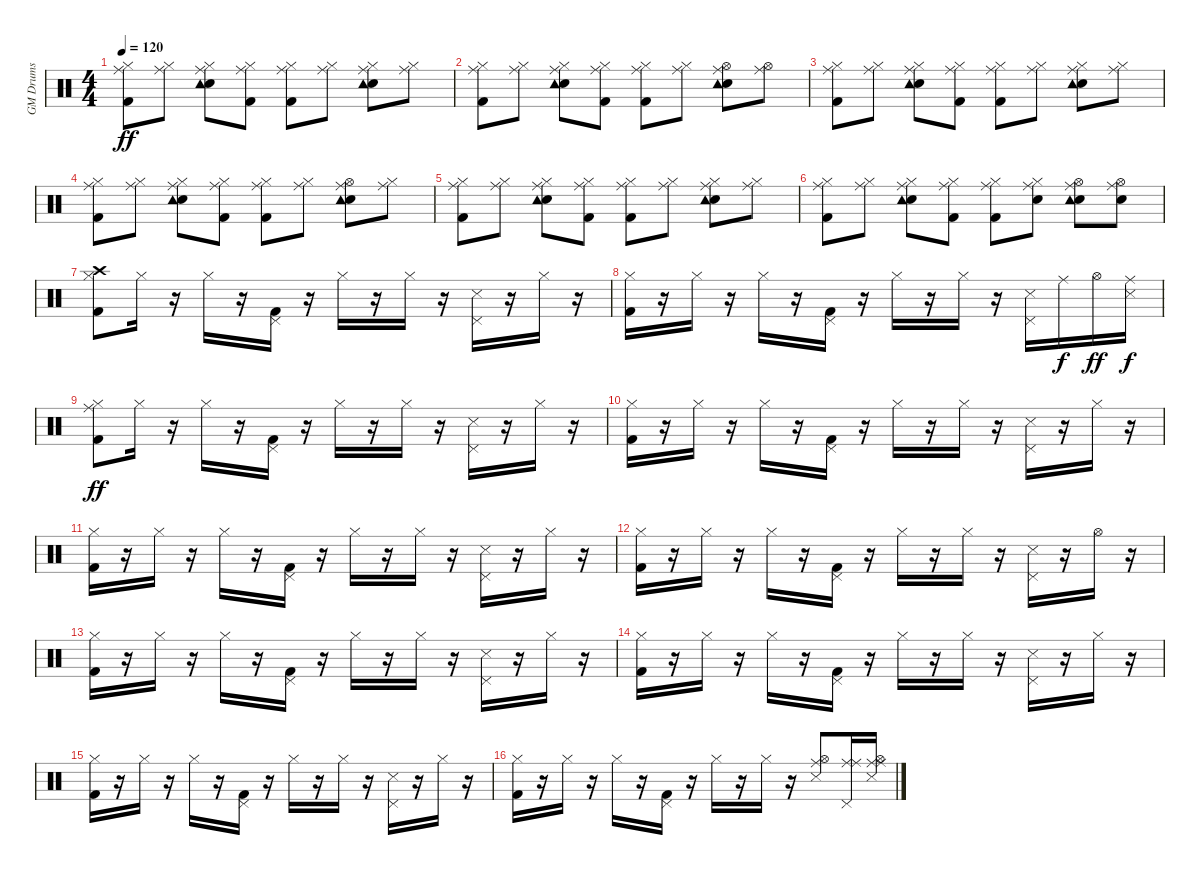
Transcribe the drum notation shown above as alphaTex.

\track ("GM Drums" "GM Drums") {instrument percussion}
\staff {score}
\articulation defaults
\ts (4 4)
\tempo 120
\clef neutral
\ks c
("Kick (hit) 2" "Hi-Hat (closed)" "Ride (middle)").8{dy ff} ("Hi-Hat (closed)" "Ride (middle)").8 ("Electric Snare (hit)" "Hi-Hat (closed)" "Ride (middle)" "Tambourine (hit)").8 ("Kick (hit) 2" "Hi-Hat (closed)" "Ride (middle)").8 ("Kick (hit) 2" "Hi-Hat (closed)" "Ride (middle)").8 ("Hi-Hat (closed)" "Ride (middle)").8 ("Electric Snare (hit)" "Hi-Hat (closed)" "Ride (middle)" "Tambourine (hit)").8 ("Hi-Hat (closed)" "Ride (middle)").8 |
("Kick (hit) 2" "Hi-Hat (closed)" "Ride (middle)").8 ("Hi-Hat (closed)" "Ride (middle)").8 ("Electric Snare (hit)" "Hi-Hat (closed)" "Ride (middle)" "Tambourine (hit)").8 ("Kick (hit) 2" "Hi-Hat (closed)" "Ride (middle)").8 ("Kick (hit) 2" "Hi-Hat (closed)" "Ride (middle)").8 ("Hi-Hat (closed)" "Ride (middle)").8 ("Electric Snare (hit)" "Hi-Hat (open)" "Ride (middle)" "Tambourine (hit)").8 ("Hi-Hat (open)" "Ride (middle)").8 |
("Kick (hit) 2" "Hi-Hat (closed)" "Ride (middle)").8 ("Hi-Hat (closed)" "Ride (middle)").8 ("Electric Snare (hit)" "Hi-Hat (closed)" "Ride (middle)" "Tambourine (hit)").8 ("Kick (hit) 2" "Hi-Hat (closed)" "Ride (middle)").8 ("Kick (hit) 2" "Hi-Hat (closed)" "Ride (middle)").8 ("Hi-Hat (closed)" "Ride (middle)").8 ("Electric Snare (hit)" "Hi-Hat (closed)" "Ride (middle)" "Tambourine (hit)").8 ("Hi-Hat (closed)" "Ride (middle)").8 |
("Kick (hit) 2" "Hi-Hat (closed)" "Ride (middle)").8 ("Hi-Hat (closed)" "Ride (middle)").8 ("Electric Snare (hit)" "Hi-Hat (closed)" "Ride (middle)" "Tambourine (hit)").8 ("Kick (hit) 2" "Hi-Hat (closed)" "Ride (middle)").8 ("Kick (hit) 2" "Hi-Hat (closed)" "Ride (middle)").8 ("Hi-Hat (closed)" "Ride (middle)").8 ("Electric Snare (hit)" "Hi-Hat (open)" "Ride (middle)" "Tambourine (hit)").8 ("Hi-Hat (closed)" "Ride (middle)").8 |
("Kick (hit) 2" "Hi-Hat (closed)" "Ride (middle)").8 ("Hi-Hat (closed)" "Ride (middle)").8 ("Electric Snare (hit)" "Hi-Hat (closed)" "Ride (middle)" "Tambourine (hit)").8 ("Kick (hit) 2" "Hi-Hat (closed)" "Ride (middle)").8 ("Kick (hit) 2" "Hi-Hat (closed)" "Ride (middle)").8 ("Hi-Hat (closed)" "Ride (middle)").8 ("Electric Snare (hit)" "Hi-Hat (closed)" "Ride (middle)" "Tambourine (hit)").8 ("Hi-Hat (closed)" "Ride (middle)").8 |
("Kick (hit) 2" "Hi-Hat (closed)" "Ride (middle)").8 ("Hi-Hat (closed)" "Ride (middle)").8 ("Electric Snare (hit)" "Hi-Hat (closed)" "Ride (middle)" "Tambourine (hit)").8 ("Kick (hit) 2" "Hi-Hat (closed)" "Ride (middle)").8 ("Kick (hit) 2" "Hi-Hat (closed)" "Ride (middle)").8 ("Electric Snare (hit)" "Hi-Hat (closed)" "Ride (middle)").8 ("Electric Snare (hit)" "Hi-Hat (open)" "Ride (middle)" "Tambourine (hit)").8 ("Electric Snare (hit)" "Hi-Hat (open)" "Ride (middle)").8 |
("Kick (hit) 2" "Hi-Hat (closed)" "Crash high (hit)").8 "Hi-Hat (closed)".16 r.16 "Hi-Hat (closed)".16 r.16 ("Kick (hit) 2" "Pedal Hi-Hat (hit)").16 r.16 "Hi-Hat (closed)".16 r.16 "Hi-Hat (closed)".16 r.16 ("Snare (side stick) 3" "Pedal Hi-Hat (hit)").16 r.16 "Hi-Hat (closed)".16 r.16 |
("Kick (hit) 2" "Hi-Hat (closed)").16 r.16 "Hi-Hat (closed)".16 r.16 "Hi-Hat (closed)".16 r.16 ("Kick (hit) 2" "Pedal Hi-Hat (hit)").16 r.16 "Hi-Hat (closed)".16 r.16 "Hi-Hat (closed)".16 r.16 ("Snare (side stick) 3" "Pedal Hi-Hat (hit)").16 "Ride (middle)".16{dy f} "Hi-Hat (open)".16{dy ff} ("Snare (side stick) 3" "Ride (middle)").16{dy f} |
("Kick (hit) 2" "Hi-Hat (closed)" "Ride (middle)").8{dy ff} "Hi-Hat (closed)".16 r.16 "Hi-Hat (closed)".16 r.16 ("Kick (hit) 2" "Pedal Hi-Hat (hit)").16 r.16 "Hi-Hat (closed)".16 r.16 "Hi-Hat (closed)".16 r.16 ("Snare (side stick) 3" "Pedal Hi-Hat (hit)").16 r.16 "Hi-Hat (closed)".16 r.16 |
("Kick (hit) 2" "Hi-Hat (closed)").16 r.16 "Hi-Hat (closed)".16 r.16 "Hi-Hat (closed)".16 r.16 ("Kick (hit) 2" "Pedal Hi-Hat (hit)").16 r.16 "Hi-Hat (closed)".16 r.16 "Hi-Hat (closed)".16 r.16 ("Snare (side stick) 3" "Pedal Hi-Hat (hit)").16 r.16 "Hi-Hat (closed)".16 r.16 |
("Kick (hit) 2" "Hi-Hat (closed)").16 r.16 "Hi-Hat (closed)".16 r.16 "Hi-Hat (closed)".16 r.16 ("Kick (hit) 2" "Pedal Hi-Hat (hit)").16 r.16 "Hi-Hat (closed)".16 r.16 "Hi-Hat (closed)".16 r.16 ("Snare (side stick) 3" "Pedal Hi-Hat (hit)").16 r.16 "Hi-Hat (closed)".16 r.16 |
("Kick (hit) 2" "Hi-Hat (closed)").16 r.16 "Hi-Hat (closed)".16 r.16 "Hi-Hat (closed)".16 r.16 ("Kick (hit) 2" "Pedal Hi-Hat (hit)").16 r.16 "Hi-Hat (closed)".16 r.16 "Hi-Hat (closed)".16 r.16 ("Snare (side stick) 3" "Pedal Hi-Hat (hit)").16 r.16 "Hi-Hat (open)".16 r.16 |
("Kick (hit) 2" "Hi-Hat (closed)").16 r.16 "Hi-Hat (closed)".16 r.16 "Hi-Hat (closed)".16 r.16 ("Kick (hit) 2" "Pedal Hi-Hat (hit)").16 r.16 "Hi-Hat (closed)".16 r.16 "Hi-Hat (closed)".16 r.16 ("Snare (side stick) 3" "Pedal Hi-Hat (hit)").16 r.16 "Hi-Hat (closed)".16 r.16 |
("Kick (hit) 2" "Hi-Hat (closed)").16 r.16 "Hi-Hat (closed)".16 r.16 "Hi-Hat (closed)".16 r.16 ("Kick (hit) 2" "Pedal Hi-Hat (hit)").16 r.16 "Hi-Hat (closed)".16 r.16 "Hi-Hat (closed)".16 r.16 ("Snare (side stick) 3" "Pedal Hi-Hat (hit)").16 r.16 "Hi-Hat (closed)".16 r.16 |
("Kick (hit) 2" "Hi-Hat (closed)").16 r.16 "Hi-Hat (closed)".16 r.16 "Hi-Hat (closed)".16 r.16 ("Kick (hit) 2" "Pedal Hi-Hat (hit)").16 r.16 "Hi-Hat (closed)".16 r.16 "Hi-Hat (closed)".16 r.16 ("Snare (side stick) 3" "Pedal Hi-Hat (hit)").16 r.16 "Hi-Hat (closed)".16 r.16 |
("Kick (hit) 2" "Hi-Hat (closed)").16 r.16 "Hi-Hat (closed)".16 r.16 "Hi-Hat (closed)".16 r.16 ("Kick (hit) 2" "Pedal Hi-Hat (hit)").16 r.16 "Hi-Hat (closed)".16 r.16 "Hi-Hat (closed)".16 r.16 ("Snare (side stick) 3" "Hi-Hat (open)" "Ride (middle)").8 ("Pedal Hi-Hat (hit)" "Ride (middle)" "Ride (middle)").16 ("Snare (side stick) 3" "Hi-Hat (open)" "Ride (middle)" "Ride (middle)").16
